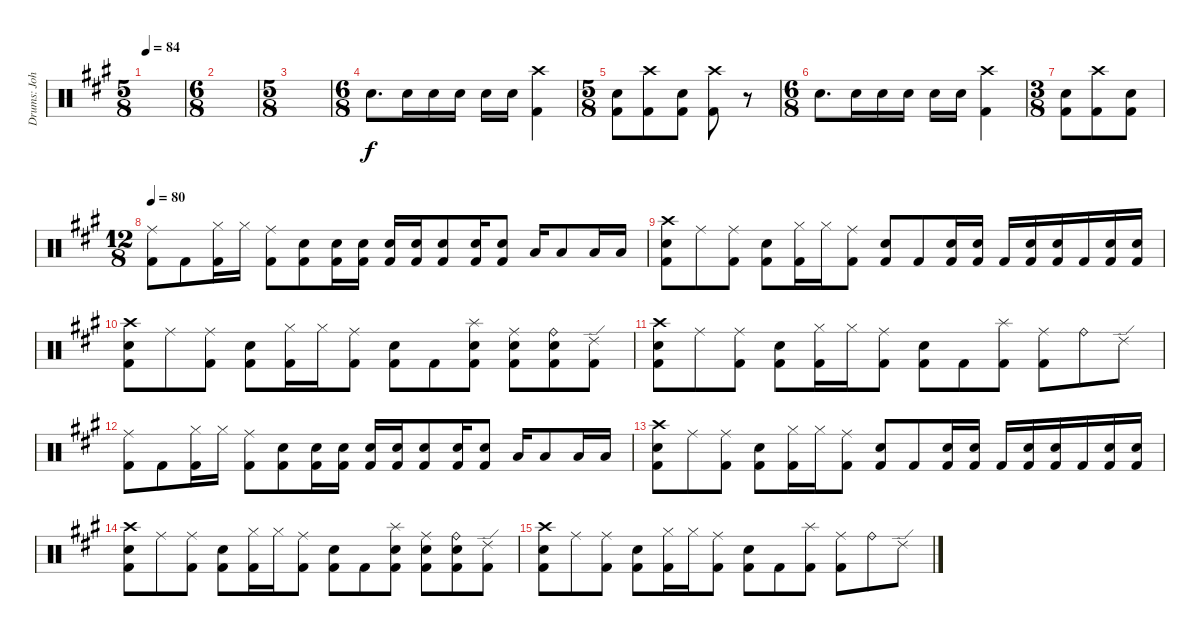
\track ("Drums: John" "Drums: Joh") {instrument percussion}
\staff {score}
\articulation defaults
\ts (5 8)
\tempo 84
\clef neutral
\ks a
|
\ts (6 8)
|
\ts (5 8)
|
\ts (6 8)
"Electric Snare (hit)".8{d} "Electric Snare (hit)".16 "Electric Snare (hit)".16 "Electric Snare (hit)".16 "Electric Snare (hit)".16 "Electric Snare (hit)".16 ("Crash high (hit)" "Kick (hit) 2").4 |
\ts (5 8)
("Electric Snare (hit)" "Kick (hit) 2").8 ("Crash high (hit)" "Kick (hit) 2").8 ("Electric Snare (hit)" "Kick (hit) 2").8 ("Crash high (hit)" "Kick (hit) 2").8 r.8 |
\ts (6 8)
"Electric Snare (hit)".8{d} "Electric Snare (hit)".16 "Electric Snare (hit)".16 "Electric Snare (hit)".16 "Electric Snare (hit)".16 "Electric Snare (hit)".16 ("Crash high (hit)" "Kick (hit) 2").4 |
\ts (3 8)
("Electric Snare (hit)" "Kick (hit) 2").8 ("Crash high (hit)" "Kick (hit) 2").8 ("Electric Snare (hit)" "Kick (hit) 2").8 |
\ts (12 8)
\tempo 80
("Ride (middle)" "Kick (hit) 2").8 "Kick (hit) 2".8 ("Hi-Hat (closed)" "Kick (hit) 2").16 "Hi-Hat (closed)".16 ("Ride (middle)" "Kick (hit) 2").8 ("Electric Snare (hit)" "Kick (hit) 2").8 ("Electric Snare (hit)" "Kick (hit) 2").16 ("Electric Snare (hit)" "Kick (hit) 2").16 ("Electric Snare (hit)" "Kick (hit) 2").16 ("Electric Snare (hit)" "Kick (hit) 2").16 ("Electric Snare (hit)" "Kick (hit) 2").8 ("Electric Snare (hit)" "Kick (hit) 2").16 ("Electric Snare (hit)" "Kick (hit) 2").8 "Low Tom (hit)".16 "Low Tom (hit)".8 "Low Tom (hit)".16 "Low Tom (hit)".16 |
("Crash high (hit)" "Electric Snare (hit)" "Kick (hit) 2").8 "Ride (middle)".8 ("Ride (middle)" "Kick (hit) 2").8 ("Electric Snare (hit)" "Kick (hit) 2").8 ("Hi-Hat (closed)" "Kick (hit) 2").16 "Hi-Hat (closed)".16 ("Ride (middle)" "Kick (hit) 2").8 ("Electric Snare (hit)" "Kick (hit) 2").8 "Kick (hit) 2".8 ("Electric Snare (hit)" "Kick (hit) 2").16 ("Electric Snare (hit)" "Kick (hit) 2").16 "Kick (hit) 2".16 ("Electric Snare (hit)" "Kick (hit) 2").16 ("Electric Snare (hit)" "Kick (hit) 2").16 "Kick (hit) 2".16 ("Electric Snare (hit)" "Kick (hit) 2").16 ("Electric Snare (hit)" "Kick (hit) 2").16 |
("Crash high (hit)" "Electric Snare (hit)" "Kick (hit) 2").8 "Ride (middle)".8 ("Ride (middle)" "Kick (hit) 2").8 ("Electric Snare (hit)" "Kick (hit) 2").8 ("Hi-Hat (closed)" "Kick (hit) 2").16 "Hi-Hat (closed)".16 ("Ride (middle)" "Kick (hit) 2").8 ("Electric Snare (hit)" "Kick (hit) 2").8 "Kick (hit) 2".8 ("Splash (hit)" "Electric Snare (hit)" "Kick (hit) 2").8 ("Ride (middle)" "Electric Snare (hit)" "Kick (hit) 2").8 ("Ride (bell)" "Electric Snare (hit)" "Kick (hit) 2").8 ("Ride (edge) 2" "Kick (hit) 2").8 |
("Crash high (hit)" "Electric Snare (hit)" "Kick (hit) 2").8 "Ride (middle)".8 ("Ride (middle)" "Kick (hit) 2").8 ("Electric Snare (hit)" "Kick (hit) 2").8 ("Hi-Hat (closed)" "Kick (hit) 2").16 "Hi-Hat (closed)".16 ("Ride (middle)" "Kick (hit) 2").8 ("Electric Snare (hit)" "Kick (hit) 2").8 "Kick (hit) 2".8 ("Splash (hit)" "Kick (hit) 2").8 ("Ride (middle)" "Kick (hit) 2").8 "Ride (bell)".8 "Ride (edge) 2".8 |
("Ride (middle)" "Kick (hit) 2").8 "Kick (hit) 2".8 ("Hi-Hat (closed)" "Kick (hit) 2").16 "Hi-Hat (closed)".16 ("Ride (middle)" "Kick (hit) 2").8 ("Electric Snare (hit)" "Kick (hit) 2").8 ("Electric Snare (hit)" "Kick (hit) 2").16 ("Electric Snare (hit)" "Kick (hit) 2").16 ("Electric Snare (hit)" "Kick (hit) 2").16 ("Electric Snare (hit)" "Kick (hit) 2").16 ("Electric Snare (hit)" "Kick (hit) 2").8 ("Electric Snare (hit)" "Kick (hit) 2").16 ("Electric Snare (hit)" "Kick (hit) 2").8 "Low Tom (hit)".16 "Low Tom (hit)".8 "Low Tom (hit)".16 "Low Tom (hit)".16 |
("Crash high (hit)" "Electric Snare (hit)" "Kick (hit) 2").8 "Ride (middle)".8 ("Ride (middle)" "Kick (hit) 2").8 ("Electric Snare (hit)" "Kick (hit) 2").8 ("Hi-Hat (closed)" "Kick (hit) 2").16 "Hi-Hat (closed)".16 ("Ride (middle)" "Kick (hit) 2").8 ("Electric Snare (hit)" "Kick (hit) 2").8 "Kick (hit) 2".8 ("Electric Snare (hit)" "Kick (hit) 2").16 ("Electric Snare (hit)" "Kick (hit) 2").16 "Kick (hit) 2".16 ("Electric Snare (hit)" "Kick (hit) 2").16 ("Electric Snare (hit)" "Kick (hit) 2").16 "Kick (hit) 2".16 ("Electric Snare (hit)" "Kick (hit) 2").16 ("Electric Snare (hit)" "Kick (hit) 2").16 |
("Crash high (hit)" "Electric Snare (hit)" "Kick (hit) 2").8 "Ride (middle)".8 ("Ride (middle)" "Kick (hit) 2").8 ("Electric Snare (hit)" "Kick (hit) 2").8 ("Hi-Hat (closed)" "Kick (hit) 2").16 "Hi-Hat (closed)".16 ("Ride (middle)" "Kick (hit) 2").8 ("Electric Snare (hit)" "Kick (hit) 2").8 "Kick (hit) 2".8 ("Splash (hit)" "Electric Snare (hit)" "Kick (hit) 2").8 ("Ride (middle)" "Electric Snare (hit)" "Kick (hit) 2").8 ("Ride (bell)" "Electric Snare (hit)" "Kick (hit) 2").8 ("Ride (edge) 2" "Kick (hit) 2").8 |
("Crash high (hit)" "Electric Snare (hit)" "Kick (hit) 2").8 "Ride (middle)".8 ("Ride (middle)" "Kick (hit) 2").8 ("Electric Snare (hit)" "Kick (hit) 2").8 ("Hi-Hat (closed)" "Kick (hit) 2").16 "Hi-Hat (closed)".16 ("Ride (middle)" "Kick (hit) 2").8 ("Electric Snare (hit)" "Kick (hit) 2").8 "Kick (hit) 2".8 ("Splash (hit)" "Kick (hit) 2").8 ("Ride (middle)" "Kick (hit) 2").8 "Ride (bell)".8 "Ride (edge) 2".8
